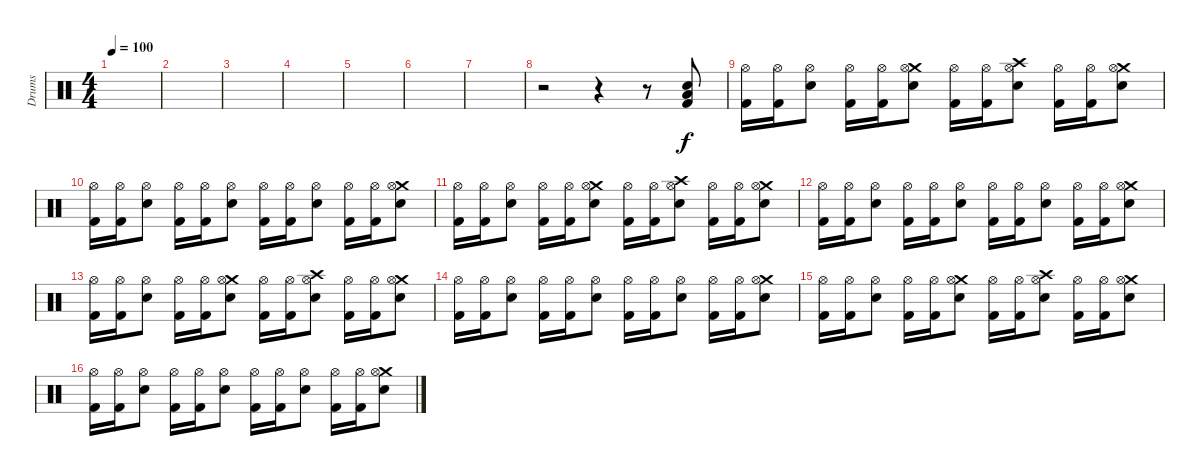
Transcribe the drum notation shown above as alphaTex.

\track ("Drums" "Drums") {instrument percussion}
\staff {score}
\articulation defaults
\ts (4 4)
\tempo 100
\clef neutral
\ks c
|
|
|
|
|
|
|
r.2 r.4 r.8 ("Low Floor Tom (hit)" "Snare (hit) 2" "Kick (hit) 2").8 |
("Hi-Hat (open)" "Kick (hit) 2").16 ("Hi-Hat (open)" "Kick (hit) 2").16 ("Hi-Hat (open)" "Snare (hit) 2").8 ("Hi-Hat (open)" "Kick (hit) 2").16 ("Hi-Hat (open)" "Kick (hit) 2").16 ("Crash medium (hit)" "Hi-Hat (open)" "Snare (hit) 2").8 ("Hi-Hat (open)" "Kick (hit) 2").16 ("Hi-Hat (open)" "Kick (hit) 2").16 ("Crash high (hit)" "Hi-Hat (open)" "Snare (hit) 2").8 ("Hi-Hat (open)" "Kick (hit) 2").16 ("Hi-Hat (open)" "Kick (hit) 2").16 ("Crash medium (hit)" "Hi-Hat (open)" "Snare (hit) 2").8 |
("Hi-Hat (open)" "Kick (hit) 2").16 ("Hi-Hat (open)" "Kick (hit) 2").16 ("Hi-Hat (open)" "Snare (hit) 2").8 ("Hi-Hat (open)" "Kick (hit) 2").16 ("Hi-Hat (open)" "Kick (hit) 2").16 ("Hi-Hat (open)" "Snare (hit) 2").8 ("Hi-Hat (open)" "Kick (hit) 2").16 ("Hi-Hat (open)" "Kick (hit) 2").16 ("Hi-Hat (open)" "Snare (hit) 2").8 ("Hi-Hat (open)" "Kick (hit) 2").16 ("Hi-Hat (open)" "Kick (hit) 2").16 ("Crash medium (hit)" "Hi-Hat (open)" "Snare (hit) 2").8 |
("Hi-Hat (open)" "Kick (hit) 2").16 ("Hi-Hat (open)" "Kick (hit) 2").16 ("Hi-Hat (open)" "Snare (hit) 2").8 ("Hi-Hat (open)" "Kick (hit) 2").16 ("Hi-Hat (open)" "Kick (hit) 2").16 ("Crash medium (hit)" "Hi-Hat (open)" "Snare (hit) 2").8 ("Hi-Hat (open)" "Kick (hit) 2").16 ("Hi-Hat (open)" "Kick (hit) 2").16 ("Crash high (hit)" "Hi-Hat (open)" "Snare (hit) 2").8 ("Hi-Hat (open)" "Kick (hit) 2").16 ("Hi-Hat (open)" "Kick (hit) 2").16 ("Crash medium (hit)" "Hi-Hat (open)" "Snare (hit) 2").8 |
("Hi-Hat (open)" "Kick (hit) 2").16 ("Hi-Hat (open)" "Kick (hit) 2").16 ("Hi-Hat (open)" "Snare (hit) 2").8 ("Hi-Hat (open)" "Kick (hit) 2").16 ("Hi-Hat (open)" "Kick (hit) 2").16 ("Hi-Hat (open)" "Snare (hit) 2").8 ("Hi-Hat (open)" "Kick (hit) 2").16 ("Hi-Hat (open)" "Kick (hit) 2").16 ("Hi-Hat (open)" "Snare (hit) 2").8 ("Hi-Hat (open)" "Kick (hit) 2").16 ("Hi-Hat (open)" "Kick (hit) 2").16 ("Crash medium (hit)" "Hi-Hat (open)" "Snare (hit) 2").8 |
("Hi-Hat (open)" "Kick (hit) 2").16 ("Hi-Hat (open)" "Kick (hit) 2").16 ("Hi-Hat (open)" "Snare (hit) 2").8 ("Hi-Hat (open)" "Kick (hit) 2").16 ("Hi-Hat (open)" "Kick (hit) 2").16 ("Crash medium (hit)" "Hi-Hat (open)" "Snare (hit) 2").8 ("Hi-Hat (open)" "Kick (hit) 2").16 ("Hi-Hat (open)" "Kick (hit) 2").16 ("Crash high (hit)" "Hi-Hat (open)" "Snare (hit) 2").8 ("Hi-Hat (open)" "Kick (hit) 2").16 ("Hi-Hat (open)" "Kick (hit) 2").16 ("Crash medium (hit)" "Hi-Hat (open)" "Snare (hit) 2").8 |
("Hi-Hat (open)" "Kick (hit) 2").16 ("Hi-Hat (open)" "Kick (hit) 2").16 ("Hi-Hat (open)" "Snare (hit) 2").8 ("Hi-Hat (open)" "Kick (hit) 2").16 ("Hi-Hat (open)" "Kick (hit) 2").16 ("Hi-Hat (open)" "Snare (hit) 2").8 ("Hi-Hat (open)" "Kick (hit) 2").16 ("Hi-Hat (open)" "Kick (hit) 2").16 ("Hi-Hat (open)" "Snare (hit) 2").8 ("Hi-Hat (open)" "Kick (hit) 2").16 ("Hi-Hat (open)" "Kick (hit) 2").16 ("Crash medium (hit)" "Hi-Hat (open)" "Snare (hit) 2").8 |
("Hi-Hat (open)" "Kick (hit) 2").16 ("Hi-Hat (open)" "Kick (hit) 2").16 ("Hi-Hat (open)" "Snare (hit) 2").8 ("Hi-Hat (open)" "Kick (hit) 2").16 ("Hi-Hat (open)" "Kick (hit) 2").16 ("Crash medium (hit)" "Hi-Hat (open)" "Snare (hit) 2").8 ("Hi-Hat (open)" "Kick (hit) 2").16 ("Hi-Hat (open)" "Kick (hit) 2").16 ("Crash high (hit)" "Hi-Hat (open)" "Snare (hit) 2").8 ("Hi-Hat (open)" "Kick (hit) 2").16 ("Hi-Hat (open)" "Kick (hit) 2").16 ("Crash medium (hit)" "Hi-Hat (open)" "Snare (hit) 2").8 |
("Hi-Hat (open)" "Kick (hit) 2").16 ("Hi-Hat (open)" "Kick (hit) 2").16 ("Hi-Hat (open)" "Snare (hit) 2").8 ("Hi-Hat (open)" "Kick (hit) 2").16 ("Hi-Hat (open)" "Kick (hit) 2").16 ("Hi-Hat (open)" "Snare (hit) 2").8 ("Hi-Hat (open)" "Kick (hit) 2").16 ("Hi-Hat (open)" "Kick (hit) 2").16 ("Hi-Hat (open)" "Snare (hit) 2").8 ("Hi-Hat (open)" "Kick (hit) 2").16 ("Hi-Hat (open)" "Kick (hit) 2").16 ("Crash medium (hit)" "Hi-Hat (open)" "Snare (hit) 2").8
